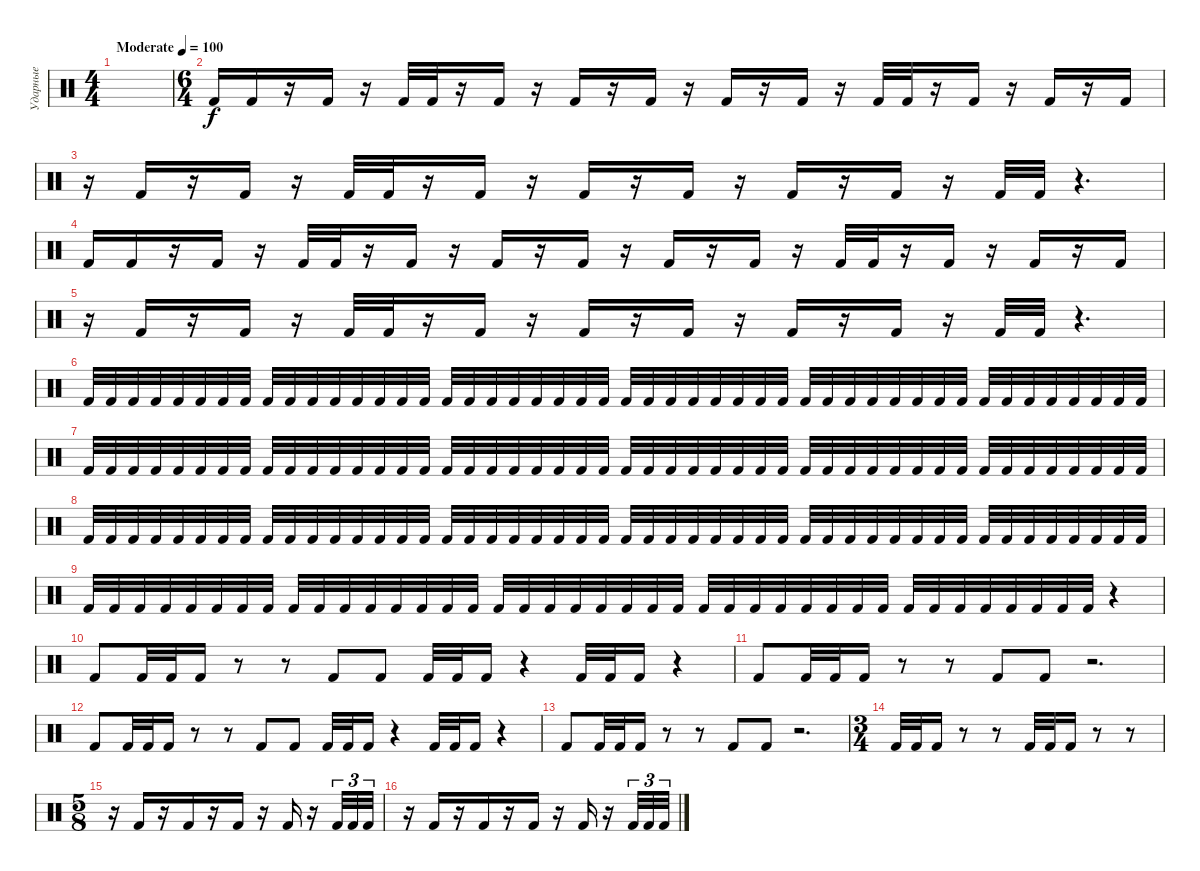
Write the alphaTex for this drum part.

\track ("Ударные" "Ударные") {instrument percussion}
\staff {score}
\articulation defaults
\ts (4 4)
\tempo (100 "Moderate")
\clef neutral
\ks c
|
\ts (6 4)
"Kick (hit) 2".16 "Kick (hit) 2".16 r.16 "Kick (hit) 2".16 r.16 "Kick (hit) 2".32 "Kick (hit) 2".32 r.16 "Kick (hit) 2".16 r.16 "Kick (hit) 2".16 r.16 "Kick (hit) 2".16 r.16 "Kick (hit) 2".16 r.16 "Kick (hit) 2".16 r.16 "Kick (hit) 2".32 "Kick (hit) 2".32 r.16 "Kick (hit) 2".16 r.16 "Kick (hit) 2".16 r.16 "Kick (hit) 2".16 |
r.16 "Kick (hit) 2".16 r.16 "Kick (hit) 2".16 r.16 "Kick (hit) 2".32 "Kick (hit) 2".32 r.16 "Kick (hit) 2".16 r.16 "Kick (hit) 2".16 r.16 "Kick (hit) 2".16 r.16 "Kick (hit) 2".16 r.16 "Kick (hit) 2".16 r.16 "Kick (hit) 2".32 "Kick (hit) 2".32 r.4{d} |
"Kick (hit) 2".16 "Kick (hit) 2".16 r.16 "Kick (hit) 2".16 r.16 "Kick (hit) 2".32 "Kick (hit) 2".32 r.16 "Kick (hit) 2".16 r.16 "Kick (hit) 2".16 r.16 "Kick (hit) 2".16 r.16 "Kick (hit) 2".16 r.16 "Kick (hit) 2".16 r.16 "Kick (hit) 2".32 "Kick (hit) 2".32 r.16 "Kick (hit) 2".16 r.16 "Kick (hit) 2".16 r.16 "Kick (hit) 2".16 |
r.16 "Kick (hit) 2".16 r.16 "Kick (hit) 2".16 r.16 "Kick (hit) 2".32 "Kick (hit) 2".32 r.16 "Kick (hit) 2".16 r.16 "Kick (hit) 2".16 r.16 "Kick (hit) 2".16 r.16 "Kick (hit) 2".16 r.16 "Kick (hit) 2".16 r.16 "Kick (hit) 2".32 "Kick (hit) 2".32 r.4{d} |
"Kick (hit) 2".32 "Kick (hit) 2".32 "Kick (hit) 2".32 "Kick (hit) 2".32 "Kick (hit) 2".32 "Kick (hit) 2".32 "Kick (hit) 2".32 "Kick (hit) 2".32 "Kick (hit) 2".32 "Kick (hit) 2".32 "Kick (hit) 2".32 "Kick (hit) 2".32 "Kick (hit) 2".32 "Kick (hit) 2".32 "Kick (hit) 2".32 "Kick (hit) 2".32 "Kick (hit) 2".32 "Kick (hit) 2".32 "Kick (hit) 2".32 "Kick (hit) 2".32 "Kick (hit) 2".32 "Kick (hit) 2".32 "Kick (hit) 2".32 "Kick (hit) 2".32 "Kick (hit) 2".32 "Kick (hit) 2".32 "Kick (hit) 2".32 "Kick (hit) 2".32 "Kick (hit) 2".32 "Kick (hit) 2".32 "Kick (hit) 2".32 "Kick (hit) 2".32 "Kick (hit) 2".32 "Kick (hit) 2".32 "Kick (hit) 2".32 "Kick (hit) 2".32 "Kick (hit) 2".32 "Kick (hit) 2".32 "Kick (hit) 2".32 "Kick (hit) 2".32 "Kick (hit) 2".32 "Kick (hit) 2".32 "Kick (hit) 2".32 "Kick (hit) 2".32 "Kick (hit) 2".32 "Kick (hit) 2".32 "Kick (hit) 2".32 "Kick (hit) 2".32 |
"Kick (hit) 2".32 "Kick (hit) 2".32 "Kick (hit) 2".32 "Kick (hit) 2".32 "Kick (hit) 2".32 "Kick (hit) 2".32 "Kick (hit) 2".32 "Kick (hit) 2".32 "Kick (hit) 2".32 "Kick (hit) 2".32 "Kick (hit) 2".32 "Kick (hit) 2".32 "Kick (hit) 2".32 "Kick (hit) 2".32 "Kick (hit) 2".32 "Kick (hit) 2".32 "Kick (hit) 2".32 "Kick (hit) 2".32 "Kick (hit) 2".32 "Kick (hit) 2".32 "Kick (hit) 2".32 "Kick (hit) 2".32 "Kick (hit) 2".32 "Kick (hit) 2".32 "Kick (hit) 2".32 "Kick (hit) 2".32 "Kick (hit) 2".32 "Kick (hit) 2".32 "Kick (hit) 2".32 "Kick (hit) 2".32 "Kick (hit) 2".32 "Kick (hit) 2".32 "Kick (hit) 2".32 "Kick (hit) 2".32 "Kick (hit) 2".32 "Kick (hit) 2".32 "Kick (hit) 2".32 "Kick (hit) 2".32 "Kick (hit) 2".32 "Kick (hit) 2".32 "Kick (hit) 2".32 "Kick (hit) 2".32 "Kick (hit) 2".32 "Kick (hit) 2".32 "Kick (hit) 2".32 "Kick (hit) 2".32 "Kick (hit) 2".32 "Kick (hit) 2".32 |
"Kick (hit) 2".32 "Kick (hit) 2".32 "Kick (hit) 2".32 "Kick (hit) 2".32 "Kick (hit) 2".32 "Kick (hit) 2".32 "Kick (hit) 2".32 "Kick (hit) 2".32 "Kick (hit) 2".32 "Kick (hit) 2".32 "Kick (hit) 2".32 "Kick (hit) 2".32 "Kick (hit) 2".32 "Kick (hit) 2".32 "Kick (hit) 2".32 "Kick (hit) 2".32 "Kick (hit) 2".32 "Kick (hit) 2".32 "Kick (hit) 2".32 "Kick (hit) 2".32 "Kick (hit) 2".32 "Kick (hit) 2".32 "Kick (hit) 2".32 "Kick (hit) 2".32 "Kick (hit) 2".32 "Kick (hit) 2".32 "Kick (hit) 2".32 "Kick (hit) 2".32 "Kick (hit) 2".32 "Kick (hit) 2".32 "Kick (hit) 2".32 "Kick (hit) 2".32 "Kick (hit) 2".32 "Kick (hit) 2".32 "Kick (hit) 2".32 "Kick (hit) 2".32 "Kick (hit) 2".32 "Kick (hit) 2".32 "Kick (hit) 2".32 "Kick (hit) 2".32 "Kick (hit) 2".32 "Kick (hit) 2".32 "Kick (hit) 2".32 "Kick (hit) 2".32 "Kick (hit) 2".32 "Kick (hit) 2".32 "Kick (hit) 2".32 "Kick (hit) 2".32 |
"Kick (hit) 2".32 "Kick (hit) 2".32 "Kick (hit) 2".32 "Kick (hit) 2".32 "Kick (hit) 2".32 "Kick (hit) 2".32 "Kick (hit) 2".32 "Kick (hit) 2".32 "Kick (hit) 2".32 "Kick (hit) 2".32 "Kick (hit) 2".32 "Kick (hit) 2".32 "Kick (hit) 2".32 "Kick (hit) 2".32 "Kick (hit) 2".32 "Kick (hit) 2".32 "Kick (hit) 2".32 "Kick (hit) 2".32 "Kick (hit) 2".32 "Kick (hit) 2".32 "Kick (hit) 2".32 "Kick (hit) 2".32 "Kick (hit) 2".32 "Kick (hit) 2".32 "Kick (hit) 2".32 "Kick (hit) 2".32 "Kick (hit) 2".32 "Kick (hit) 2".32 "Kick (hit) 2".32 "Kick (hit) 2".32 "Kick (hit) 2".32 "Kick (hit) 2".32 "Kick (hit) 2".32 "Kick (hit) 2".32 "Kick (hit) 2".32 "Kick (hit) 2".32 "Kick (hit) 2".32 "Kick (hit) 2".32 "Kick (hit) 2".32 "Kick (hit) 2".32 r.4 |
"Kick (hit) 2".8 "Kick (hit) 2".32 "Kick (hit) 2".32 "Kick (hit) 2".16 r.8 r.8 "Kick (hit) 2".8 "Kick (hit) 2".8 "Kick (hit) 2".32 "Kick (hit) 2".32 "Kick (hit) 2".16 r.4 "Kick (hit) 2".32 "Kick (hit) 2".32 "Kick (hit) 2".16 r.4 |
"Kick (hit) 2".8 "Kick (hit) 2".32 "Kick (hit) 2".32 "Kick (hit) 2".16 r.8 r.8 "Kick (hit) 2".8 "Kick (hit) 2".8 r.2{d} |
"Kick (hit) 2".8 "Kick (hit) 2".32 "Kick (hit) 2".32 "Kick (hit) 2".16 r.8 r.8 "Kick (hit) 2".8 "Kick (hit) 2".8 "Kick (hit) 2".32 "Kick (hit) 2".32 "Kick (hit) 2".16 r.4 "Kick (hit) 2".32 "Kick (hit) 2".32 "Kick (hit) 2".16 r.4 |
"Kick (hit) 2".8 "Kick (hit) 2".32 "Kick (hit) 2".32 "Kick (hit) 2".16 r.8 r.8 "Kick (hit) 2".8 "Kick (hit) 2".8 r.2{d} |
\ts (3 4)
"Kick (hit) 2".32 "Kick (hit) 2".32 "Kick (hit) 2".16 r.8 r.8 "Kick (hit) 2".32 "Kick (hit) 2".32 "Kick (hit) 2".16 r.8 r.8 |
\ts (5 8)
r.16 "Kick (hit) 2".16 r.16 "Kick (hit) 2".16 r.16 "Kick (hit) 2".16 r.16 "Kick (hit) 2".16 r.16 "Kick (hit) 2".32{tu (3 2)} "Kick (hit) 2".32{tu (3 2)} "Kick (hit) 2".32{tu (3 2)} |
r.16 "Kick (hit) 2".16 r.16 "Kick (hit) 2".16 r.16 "Kick (hit) 2".16 r.16 "Kick (hit) 2".16 r.16 "Kick (hit) 2".32{tu (3 2)} "Kick (hit) 2".32{tu (3 2)} "Kick (hit) 2".32{tu (3 2)}
